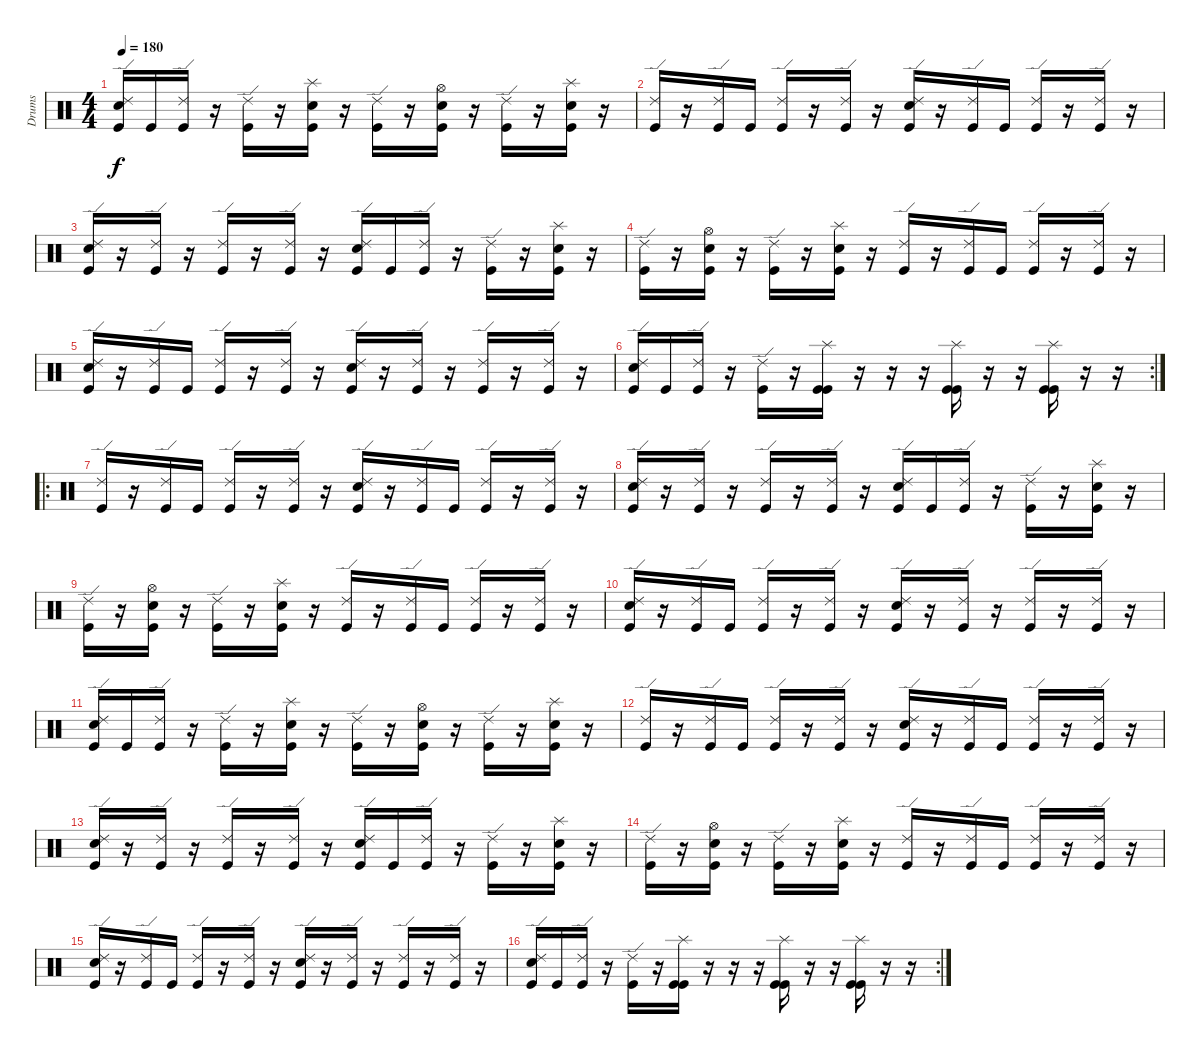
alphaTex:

\track ("Drums" "Drums") {instrument percussion}
\staff {score}
\articulation defaults
\ts (4 4)
\tempo 180
\clef neutral
\ks c
("Ride (edge) 2" "Snare (hit) 2" "Kick (hit)").16{dy f} "Kick (hit)".16 ("Ride (edge) 2" "Kick (hit)").16 r.16 ("Ride (edge) 2" "Kick (hit)").16 r.16 ("Splash (hit)" "Snare (hit) 2" "Kick (hit)").16 r.16 ("Ride (edge) 2" "Kick (hit)").16 r.16 ("Hi-Hat (open)" "Snare (hit) 2" "Kick (hit)").16 r.16 ("Ride (edge) 2" "Kick (hit)").16 r.16 ("Splash (hit)" "Snare (hit) 2" "Kick (hit)").16 r.16 |
("Ride (edge) 2" "Kick (hit)").16 r.16 ("Ride (edge) 2" "Kick (hit)").16 "Kick (hit)".16 ("Ride (edge) 2" "Kick (hit)").16 r.16 ("Ride (edge) 2" "Kick (hit)").16 r.16 ("Ride (edge) 2" "Snare (hit) 2" "Kick (hit)").16 r.16 ("Ride (edge) 2" "Kick (hit)").16 "Kick (hit)".16 ("Ride (edge) 2" "Kick (hit)").16 r.16 ("Ride (edge) 2" "Kick (hit)").16 r.16 |
("Ride (edge) 2" "Snare (hit) 2" "Kick (hit)").16 r.16 ("Ride (edge) 2" "Kick (hit)").16 r.16 ("Ride (edge) 2" "Kick (hit)").16 r.16 ("Ride (edge) 2" "Kick (hit)").16 r.16 ("Ride (edge) 2" "Snare (hit) 2" "Kick (hit)").16 "Kick (hit)".16 ("Ride (edge) 2" "Kick (hit)").16 r.16 ("Ride (edge) 2" "Kick (hit)").16 r.16 ("Splash (hit)" "Snare (hit) 2" "Kick (hit)").16 r.16 |
("Ride (edge) 2" "Kick (hit)").16 r.16 ("Hi-Hat (open)" "Snare (hit) 2" "Kick (hit)").16 r.16 ("Ride (edge) 2" "Kick (hit)").16 r.16 ("Splash (hit)" "Snare (hit) 2" "Kick (hit)").16 r.16 ("Ride (edge) 2" "Kick (hit)").16 r.16 ("Ride (edge) 2" "Kick (hit)").16 "Kick (hit)".16 ("Ride (edge) 2" "Kick (hit)").16 r.16 ("Ride (edge) 2" "Kick (hit)").16 r.16 |
("Ride (edge) 2" "Snare (hit) 2" "Kick (hit)").16 r.16 ("Ride (edge) 2" "Kick (hit)").16 "Kick (hit)".16 ("Ride (edge) 2" "Kick (hit)").16 r.16 ("Ride (edge) 2" "Kick (hit)").16 r.16 ("Ride (edge) 2" "Snare (hit) 2" "Kick (hit)").16 r.16 ("Ride (edge) 2" "Kick (hit)").16 r.16 ("Ride (edge) 2" "Kick (hit)").16 r.16 ("Ride (edge) 2" "Kick (hit)").16 r.16 |
\rc 2
("Ride (edge) 2" "Snare (hit) 2" "Kick (hit)").16 "Kick (hit)".16 ("Ride (edge) 2" "Kick (hit)").16 r.16 ("Ride (edge) 2" "Kick (hit)").16 r.16 ("Splash (hit)" "Kick (hit)" "Kick (hit)").16 r.16 r.16 r.16 ("Splash (hit)" "Kick (hit)" "Kick (hit)").16 r.16 r.16 ("Splash (hit)" "Kick (hit)" "Kick (hit)").16 r.16 r.16 |
\ro
("Ride (edge) 2" "Kick (hit)").16 r.16 ("Ride (edge) 2" "Kick (hit)").16 "Kick (hit)".16 ("Ride (edge) 2" "Kick (hit)").16 r.16 ("Ride (edge) 2" "Kick (hit)").16 r.16 ("Ride (edge) 2" "Snare (hit) 2" "Kick (hit)").16 r.16 ("Ride (edge) 2" "Kick (hit)").16 "Kick (hit)".16 ("Ride (edge) 2" "Kick (hit)").16 r.16 ("Ride (edge) 2" "Kick (hit)").16 r.16 |
("Ride (edge) 2" "Snare (hit) 2" "Kick (hit)").16 r.16 ("Ride (edge) 2" "Kick (hit)").16 r.16 ("Ride (edge) 2" "Kick (hit)").16 r.16 ("Ride (edge) 2" "Kick (hit)").16 r.16 ("Ride (edge) 2" "Snare (hit) 2" "Kick (hit)").16 "Kick (hit)".16 ("Ride (edge) 2" "Kick (hit)").16 r.16 ("Ride (edge) 2" "Kick (hit)").16 r.16 ("Splash (hit)" "Snare (hit) 2" "Kick (hit)").16 r.16 |
("Ride (edge) 2" "Kick (hit)").16 r.16 ("Hi-Hat (open)" "Snare (hit) 2" "Kick (hit)").16 r.16 ("Ride (edge) 2" "Kick (hit)").16 r.16 ("Splash (hit)" "Snare (hit) 2" "Kick (hit)").16 r.16 ("Ride (edge) 2" "Kick (hit)").16 r.16 ("Ride (edge) 2" "Kick (hit)").16 "Kick (hit)".16 ("Ride (edge) 2" "Kick (hit)").16 r.16 ("Ride (edge) 2" "Kick (hit)").16 r.16 |
("Ride (edge) 2" "Snare (hit) 2" "Kick (hit)").16 r.16 ("Ride (edge) 2" "Kick (hit)").16 "Kick (hit)".16 ("Ride (edge) 2" "Kick (hit)").16 r.16 ("Ride (edge) 2" "Kick (hit)").16 r.16 ("Ride (edge) 2" "Snare (hit) 2" "Kick (hit)").16 r.16 ("Ride (edge) 2" "Kick (hit)").16 r.16 ("Ride (edge) 2" "Kick (hit)").16 r.16 ("Ride (edge) 2" "Kick (hit)").16 r.16 |
("Ride (edge) 2" "Snare (hit) 2" "Kick (hit)").16 "Kick (hit)".16 ("Ride (edge) 2" "Kick (hit)").16 r.16 ("Ride (edge) 2" "Kick (hit)").16 r.16 ("Splash (hit)" "Snare (hit) 2" "Kick (hit)").16 r.16 ("Ride (edge) 2" "Kick (hit)").16 r.16 ("Hi-Hat (open)" "Snare (hit) 2" "Kick (hit)").16 r.16 ("Ride (edge) 2" "Kick (hit)").16 r.16 ("Splash (hit)" "Snare (hit) 2" "Kick (hit)").16 r.16 |
("Ride (edge) 2" "Kick (hit)").16 r.16 ("Ride (edge) 2" "Kick (hit)").16 "Kick (hit)".16 ("Ride (edge) 2" "Kick (hit)").16 r.16 ("Ride (edge) 2" "Kick (hit)").16 r.16 ("Ride (edge) 2" "Snare (hit) 2" "Kick (hit)").16 r.16 ("Ride (edge) 2" "Kick (hit)").16 "Kick (hit)".16 ("Ride (edge) 2" "Kick (hit)").16 r.16 ("Ride (edge) 2" "Kick (hit)").16 r.16 |
("Ride (edge) 2" "Snare (hit) 2" "Kick (hit)").16 r.16 ("Ride (edge) 2" "Kick (hit)").16 r.16 ("Ride (edge) 2" "Kick (hit)").16 r.16 ("Ride (edge) 2" "Kick (hit)").16 r.16 ("Ride (edge) 2" "Snare (hit) 2" "Kick (hit)").16 "Kick (hit)".16 ("Ride (edge) 2" "Kick (hit)").16 r.16 ("Ride (edge) 2" "Kick (hit)").16 r.16 ("Splash (hit)" "Snare (hit) 2" "Kick (hit)").16 r.16 |
("Ride (edge) 2" "Kick (hit)").16 r.16 ("Hi-Hat (open)" "Snare (hit) 2" "Kick (hit)").16 r.16 ("Ride (edge) 2" "Kick (hit)").16 r.16 ("Splash (hit)" "Snare (hit) 2" "Kick (hit)").16 r.16 ("Ride (edge) 2" "Kick (hit)").16 r.16 ("Ride (edge) 2" "Kick (hit)").16 "Kick (hit)".16 ("Ride (edge) 2" "Kick (hit)").16 r.16 ("Ride (edge) 2" "Kick (hit)").16 r.16 |
("Ride (edge) 2" "Snare (hit) 2" "Kick (hit)").16 r.16 ("Ride (edge) 2" "Kick (hit)").16 "Kick (hit)".16 ("Ride (edge) 2" "Kick (hit)").16 r.16 ("Ride (edge) 2" "Kick (hit)").16 r.16 ("Ride (edge) 2" "Snare (hit) 2" "Kick (hit)").16 r.16 ("Ride (edge) 2" "Kick (hit)").16 r.16 ("Ride (edge) 2" "Kick (hit)").16 r.16 ("Ride (edge) 2" "Kick (hit)").16 r.16 |
\rc 2
("Ride (edge) 2" "Snare (hit) 2" "Kick (hit)").16 "Kick (hit)".16 ("Ride (edge) 2" "Kick (hit)").16 r.16 ("Ride (edge) 2" "Kick (hit)").16 r.16 ("Splash (hit)" "Kick (hit)" "Kick (hit)").16 r.16 r.16 r.16 ("Splash (hit)" "Kick (hit)" "Kick (hit)").16 r.16 r.16 ("Splash (hit)" "Kick (hit)" "Kick (hit)").16 r.16 r.16
